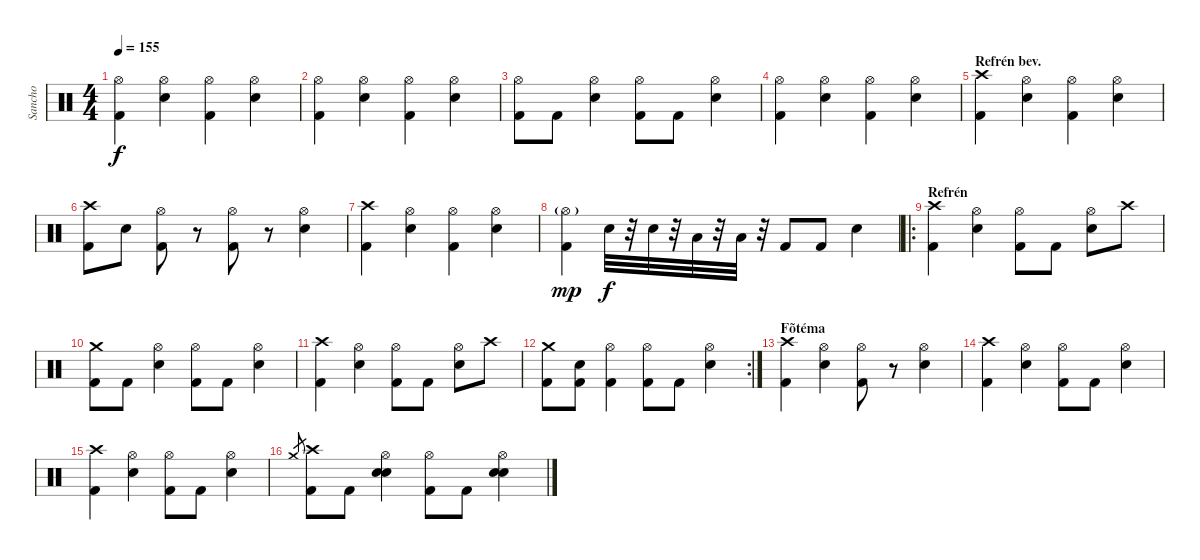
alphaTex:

\track ("Sancho" "Sancho") {instrument percussion}
\staff {score}
\articulation defaults
\ts (4 4)
\tempo 155
\clef neutral
\ks c
("Hi-Hat (open)" "Kick (hit) 2").4{dy f} ("Hi-Hat (open)" "Electric Snare (hit)").4 ("Hi-Hat (open)" "Kick (hit) 2").4 ("Hi-Hat (open)" "Electric Snare (hit)").4 |
("Hi-Hat (open)" "Kick (hit) 2").4 ("Hi-Hat (open)" "Electric Snare (hit)").4 ("Hi-Hat (open)" "Kick (hit) 2").4 ("Hi-Hat (open)" "Electric Snare (hit)").4 |
("Hi-Hat (open)" "Kick (hit) 2").8 "Kick (hit) 2".8 ("Hi-Hat (open)" "Electric Snare (hit)").4 ("Hi-Hat (open)" "Kick (hit) 2").8 "Kick (hit) 2".8 ("Hi-Hat (open)" "Electric Snare (hit)").4 |
("Hi-Hat (open)" "Kick (hit) 2").4 ("Hi-Hat (open)" "Electric Snare (hit)").4 ("Hi-Hat (open)" "Kick (hit) 2").4 ("Hi-Hat (open)" "Electric Snare (hit)").4 |
\section ("" "Refrén bev.")
("Crash high (hit)" "Kick (hit) 2").4 ("Hi-Hat (open)" "Electric Snare (hit)").4 ("Hi-Hat (open)" "Kick (hit) 2").4 ("Hi-Hat (open)" "Electric Snare (hit)").4 |
("Crash high (hit)" "Kick (hit) 2").8 "Electric Snare (hit)".8 ("Hi-Hat (open)" "Kick (hit) 2").8 r.8 ("Hi-Hat (open)" "Kick (hit) 2").8 r.8 ("Hi-Hat (open)" "Electric Snare (hit)").4 |
("Crash high (hit)" "Kick (hit) 2").4 ("Hi-Hat (open)" "Electric Snare (hit)").4 ("Hi-Hat (open)" "Kick (hit) 2").4 ("Hi-Hat (open)" "Electric Snare (hit)").4 |
("Hi-Hat (open)"{g} "Kick (hit) 2").4{dy mp} "Electric Snare (hit)".32{dy f} r.32 "Electric Snare (hit)".32 r.32 "Low Tom (hit)".32 r.32 "Low Tom (hit)".32 r.32 "Kick (hit) 2".8 "Kick (hit) 2".8 "Electric Snare (hit)".4 |
\ro
\section ("" "Refrén")
("Crash high (hit)" "Kick (hit) 2").4 ("Hi-Hat (open)" "Electric Snare (hit)").4 ("Hi-Hat (open)" "Kick (hit) 2").8 "Kick (hit) 2".8 ("Hi-Hat (open)" "Electric Snare (hit)").8 "Crash high (hit)".8 |
("Crash medium (hit)" "Kick (hit) 2").8 "Kick (hit) 2".8 ("Hi-Hat (open)" "Electric Snare (hit)").4 ("Hi-Hat (open)" "Kick (hit) 2").8 "Kick (hit) 2".8 ("Hi-Hat (open)" "Electric Snare (hit)").4 |
("Crash high (hit)" "Kick (hit) 2").4 ("Hi-Hat (open)" "Electric Snare (hit)").4 ("Hi-Hat (open)" "Kick (hit) 2").8 "Kick (hit) 2".8 ("Hi-Hat (open)" "Electric Snare (hit)").8 "Crash high (hit)".8 |
\rc 2
("Crash medium (hit)" "Kick (hit) 2").8 ("Electric Snare (hit)" "Kick (hit) 2").8 ("Hi-Hat (open)" "Kick (hit) 2").4 ("Hi-Hat (open)" "Kick (hit) 2").8 "Kick (hit) 2".8 ("Hi-Hat (open)" "Electric Snare (hit)").4 |
\section ("" "Fõtéma")
("Crash high (hit)" "Kick (hit) 2").4 ("Hi-Hat (open)" "Electric Snare (hit)").4 ("Hi-Hat (open)" "Kick (hit) 2").8 r.8 ("Hi-Hat (open)" "Electric Snare (hit)").4 |
("Crash high (hit)" "Kick (hit) 2").4 ("Hi-Hat (open)" "Electric Snare (hit)").4 ("Hi-Hat (open)" "Kick (hit) 2").8 "Kick (hit) 2".8 ("Hi-Hat (open)" "Electric Snare (hit)").4 |
("Crash high (hit)" "Kick (hit) 2").4 ("Hi-Hat (open)" "Electric Snare (hit)").4 ("Hi-Hat (open)" "Kick (hit) 2").8 "Kick (hit) 2".8 ("Hi-Hat (open)" "Electric Snare (hit)").4 |
"Crash medium (hit)".8{gr} ("Crash high (hit)" "Kick (hit) 2").8 "Kick (hit) 2".8 ("Hi-Hat (open)" "Electric Snare (hit)" "Electric Snare (hit)").4 ("Hi-Hat (open)" "Kick (hit) 2").8 "Kick (hit) 2".8 ("Hi-Hat (open)" "Electric Snare (hit)" "Electric Snare (hit)").4
